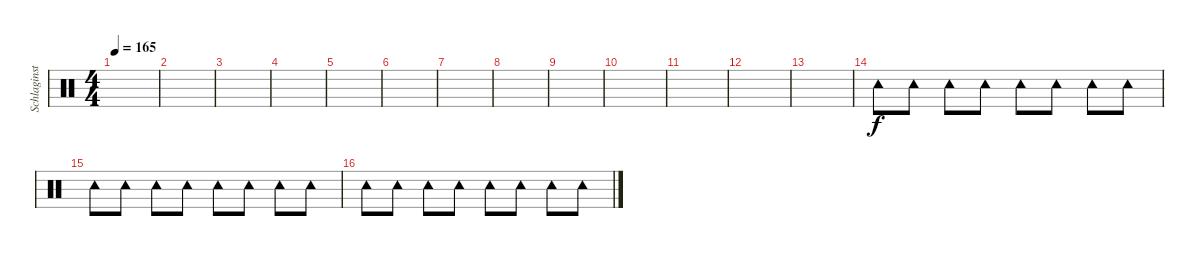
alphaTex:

\track ("Schlaginstrumente - Auswahl" "Schlaginst") {instrument percussion}
\staff {score}
\articulation defaults
\ts (4 4)
\tempo 165
\clef neutral
\ks c
|
|
|
|
|
|
|
|
|
|
|
|
|
"Tambourine (hit)".8 "Tambourine (hit)".8 "Tambourine (hit)".8 "Tambourine (hit)".8 "Tambourine (hit)".8 "Tambourine (hit)".8 "Tambourine (hit)".8 "Tambourine (hit)".8 |
"Tambourine (hit)".8 "Tambourine (hit)".8 "Tambourine (hit)".8 "Tambourine (hit)".8 "Tambourine (hit)".8 "Tambourine (hit)".8 "Tambourine (hit)".8 "Tambourine (hit)".8 |
"Tambourine (hit)".8 "Tambourine (hit)".8 "Tambourine (hit)".8 "Tambourine (hit)".8 "Tambourine (hit)".8 "Tambourine (hit)".8 "Tambourine (hit)".8 "Tambourine (hit)".8
